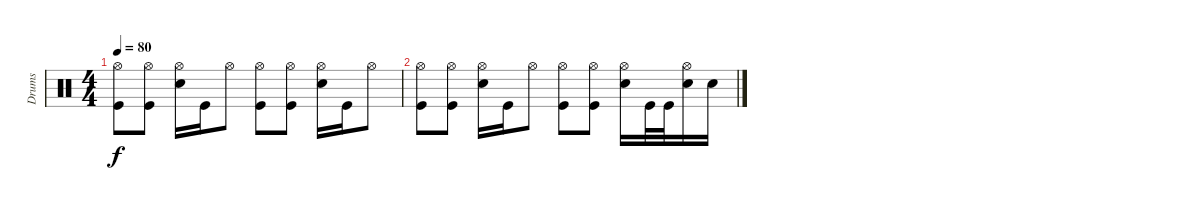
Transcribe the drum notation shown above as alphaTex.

\track ("Drums" "Drums") {instrument percussion}
\staff {score}
\articulation defaults
\ts (4 4)
\tempo 80
\clef neutral
\ks c
("Kick (hit)" "Hi-Hat (open)").8{dy f} ("Kick (hit)" "Hi-Hat (open)").8 ("Electric Snare (hit)" "Hi-Hat (open)").16 "Kick (hit)".16 "Hi-Hat (open)".8 ("Kick (hit)" "Hi-Hat (open)").8 ("Kick (hit)" "Hi-Hat (open)").8 ("Electric Snare (hit)" "Hi-Hat (open)").16 "Kick (hit)".16 "Hi-Hat (open)".8 |
("Kick (hit)" "Hi-Hat (open)").8 ("Kick (hit)" "Hi-Hat (open)").8 ("Electric Snare (hit)" "Hi-Hat (open)").16 "Kick (hit)".16 "Hi-Hat (open)".8 ("Kick (hit)" "Hi-Hat (open)").8 ("Kick (hit)" "Hi-Hat (open)").8 ("Electric Snare (hit)" "Hi-Hat (open)").16 "Kick (hit)".32 "Kick (hit)".32 ("Electric Snare (hit)" "Hi-Hat (open)").16 "Electric Snare (hit)".16
